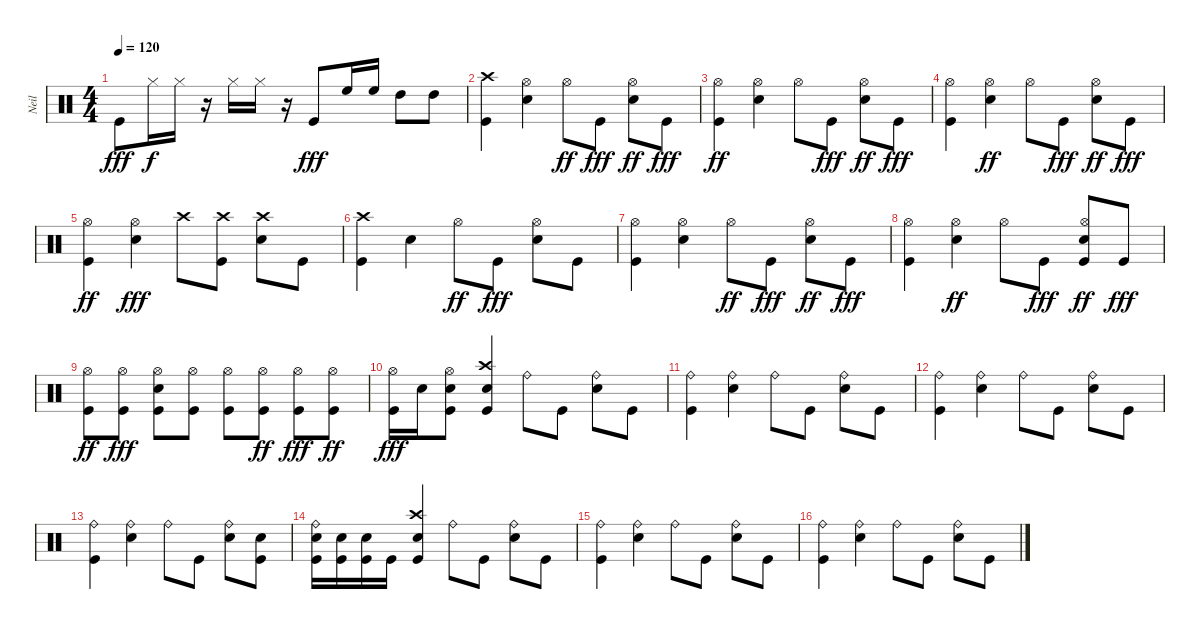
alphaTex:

\track ("Neil" "Neil") {instrument percussion}
\staff {score}
\articulation defaults
\ts (4 4)
\tempo 120
\clef neutral
\ks c "Kick (hit)".8{dy fff} "Hi-Hat (closed)".16{dy f} "Hi-Hat (closed)".16
r.16 "Hi-Hat (closed)".16 "Hi-Hat (closed)".16 r.16 "Kick (hit)".8{dy fff} "High Floor Tom (hit)".16 "High Floor Tom (hit)".16 "High Tom (hit)".8 "High Tom (hit)".8 |
("Kick (hit)" "Crash high (hit)").4 ("Hi-Hat (open)" "Snare (hit) 2").4 "Hi-Hat (open)".8{dy ff} "Kick (hit)".8{dy fff} ("Snare (hit) 2" "Hi-Hat (open)").8{dy ff} "Kick (hit)".8{dy fff} |
("Kick (hit)" "Hi-Hat (open)").4{dy ff} ("Snare (hit) 2" "Hi-Hat (open)").4 "Hi-Hat (open)".8 "Kick (hit)".8{dy fff} ("Snare (hit) 2" "Hi-Hat (open)").8{dy ff} "Kick (hit)".8{dy fff} |
("Hi-Hat (open)" "Kick (hit)").4 ("Snare (hit) 2" "Hi-Hat (open)").4{dy ff} "Hi-Hat (open)".8 "Kick (hit)".8{dy fff} ("Snare (hit) 2" "Hi-Hat (open)").8{dy ff} "Kick (hit)".8{dy fff} |
("Kick (hit)" "Hi-Hat (open)").4{dy ff} ("Hi-Hat (open)" "Snare (hit) 2").4{dy fff} "Crash high (hit)".8 ("Crash high (hit)" "Kick (hit)").8 ("Snare (hit) 2" "Crash high (hit)").8 "Kick (hit)".8 |
("Crash high (hit)" "Kick (hit)").4 "Snare (hit) 2".4 "Hi-Hat (open)".8{dy ff} "Kick (hit)".8{dy fff} ("Hi-Hat (open)" "Snare (hit) 2").8 "Kick (hit)".8 |
("Hi-Hat (open)" "Kick (hit)").4 ("Hi-Hat (open)" "Snare (hit) 2").4 "Hi-Hat (open)".8{dy ff} "Kick (hit)".8{dy fff} ("Snare (hit) 2" "Hi-Hat (open)").8{dy ff} "Kick (hit)".8{dy fff} |
("Hi-Hat (open)" "Kick (hit)").4 ("Snare (hit) 2" "Hi-Hat (open)").4{dy ff} "Hi-Hat (open)".8 "Kick (hit)".8{dy fff} ("Snare (hit) 2" "Kick (hit)" "Hi-Hat (open)").8{dy ff} "Kick (hit)".8{dy fff} |
("Kick (hit)" "Hi-Hat (open)").8{dy ff} ("Hi-Hat (open)" "Kick (hit)").8{dy fff} ("Hi-Hat (open)" "Snare (hit) 2" "Kick (hit)").8 ("Hi-Hat (open)" "Kick (hit)").8 ("Hi-Hat (open)" "Kick (hit)").8 ("Kick (hit)" "Hi-Hat (open)").8{dy ff} ("Hi-Hat (open)" "Kick (hit)").8{dy fff} ("Kick (hit)" "Hi-Hat (open)").8{dy ff} |
("Hi-Hat (open)" "Kick (hit)").16{dy fff} "Snare (hit) 2".16 ("Hi-Hat (open)" "Snare (hit) 2" "Kick (hit)").8 ("Kick (hit)" "Crash high (hit)" "Snare (hit) 2").4 "Ride (bell)".8 "Kick (hit)".8 ("Ride (bell)" "Snare (hit) 2").8 "Kick (hit)".8 |
("Ride (bell)" "Kick (hit)").4 ("Snare (hit) 2" "Ride (bell)").4 "Ride (bell)".8 "Kick (hit)".8 ("Snare (hit) 2" "Ride (bell)").8 "Kick (hit)".8 |
("Ride (bell)" "Kick (hit)").4 ("Snare (hit) 2" "Ride (bell)").4 "Ride (bell)".8 "Kick (hit)".8 ("Snare (hit) 2" "Ride (bell)").8 "Kick (hit)".8 |
("Ride (bell)" "Kick (hit)").4 ("Ride (bell)" "Snare (hit) 2").4 "Ride (bell)".8 "Kick (hit)".8 ("Ride (bell)" "Snare (hit) 2").8 ("Snare (hit) 2" "Kick (hit)").8 |
("Snare (hit) 2" "Ride (bell)" "Kick (hit)").16 ("Kick (hit)" "Snare (hit) 2").16 ("Snare (hit) 2" "Kick (hit)").16 "Kick (hit)".16 ("Snare (hit) 2" "Kick (hit)" "Crash high (hit)").4 "Ride (bell)".8 "Kick (hit)".8 ("Ride (bell)" "Snare (hit) 2").8 "Kick (hit)".8 |
("Kick (hit)" "Ride (bell)").4 ("Snare (hit) 2" "Ride (bell)").4 "Ride (bell)".8 "Kick (hit)".8 ("Snare (hit) 2" "Ride (bell)").8 "Kick (hit)".8 |
("Ride (bell)" "Kick (hit)").4 ("Ride (bell)" "Snare (hit) 2").4 "Ride (bell)".8 "Kick (hit)".8 ("Ride (bell)" "Snare (hit) 2").8 "Kick (hit)".8
